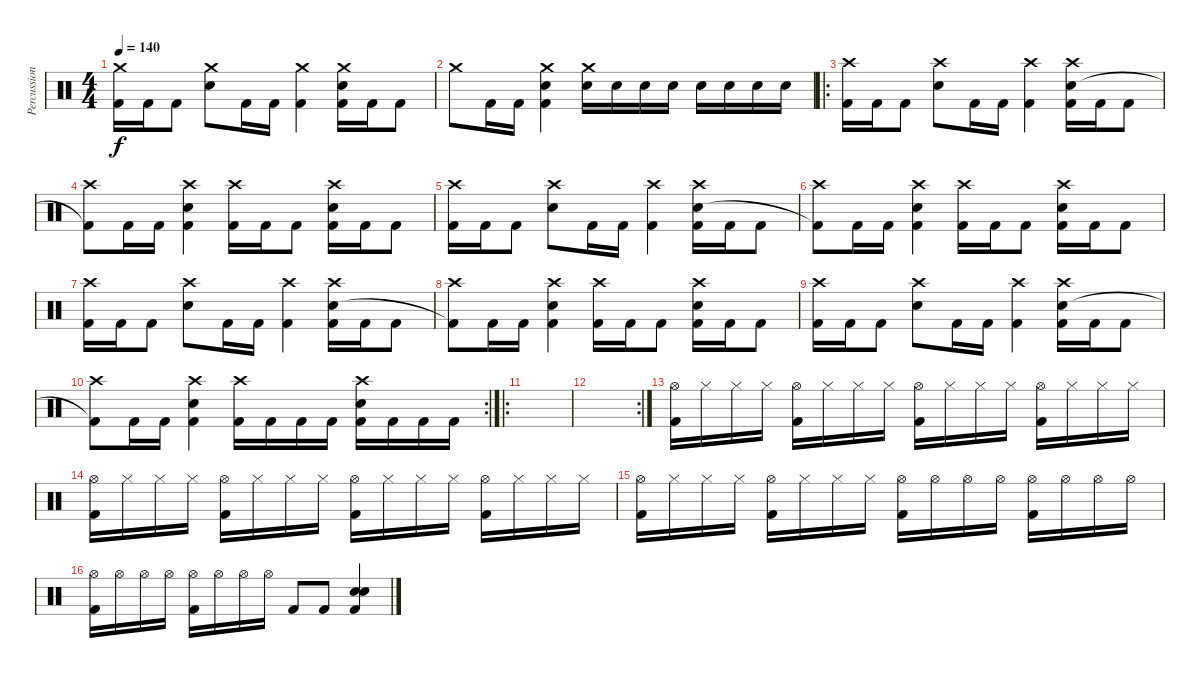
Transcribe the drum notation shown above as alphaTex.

\track ("Percussion" "Percussion") {instrument percussion}
\staff {score}
\articulation defaults
\ts (4 4)
\tempo 140
\clef neutral
\ks c
("Crash medium (hit)" "Kick (hit) 2").16{dy f} "Kick (hit) 2".16 "Kick (hit) 2".8 ("Crash medium (hit)" "Electric Snare (hit)").8 "Kick (hit) 2".16 "Kick (hit) 2".16 ("Crash medium (hit)" "Kick (hit) 2").4 ("Crash medium (hit)" "Electric Snare (hit)" "Kick (hit) 2").16 "Kick (hit) 2".16 "Kick (hit) 2".8 |
"Crash medium (hit)".8 "Kick (hit) 2".16 "Kick (hit) 2".16 ("Crash medium (hit)" "Electric Snare (hit)" "Kick (hit) 2").4 ("Crash medium (hit)" "Electric Snare (hit)").16 "Electric Snare (hit)".16 "Electric Snare (hit)".16 "Electric Snare (hit)".16 "Electric Snare (hit)".16 "Electric Snare (hit)".16 "Electric Snare (hit)".16 "Electric Snare (hit)".16 |
\ro
("Crash high (hit)" "Kick (hit) 2").16 "Kick (hit) 2".16 "Kick (hit) 2".8 ("Crash high (hit)" "Electric Snare (hit)").8 "Kick (hit) 2".16 "Kick (hit) 2".16 ("Crash high (hit)" "Kick (hit) 2").4 ("Crash high (hit)" "Electric Snare (hit)" "Kick (hit) 2").16 "Kick (hit) 2".16 "Kick (hit) 2".8 |
("Crash high (hit)" "Kick (hit) 2"{t}).8 "Kick (hit) 2".16 "Kick (hit) 2".16 ("Crash high (hit)" "Electric Snare (hit)" "Kick (hit) 2").4 ("Crash high (hit)" "Kick (hit) 2").16 "Kick (hit) 2".16 "Kick (hit) 2".8 ("Crash high (hit)" "Electric Snare (hit)" "Kick (hit) 2").16 "Kick (hit) 2".16 "Kick (hit) 2".8 |
("Crash high (hit)" "Kick (hit) 2").16 "Kick (hit) 2".16 "Kick (hit) 2".8 ("Crash high (hit)" "Electric Snare (hit)").8 "Kick (hit) 2".16 "Kick (hit) 2".16 ("Crash high (hit)" "Kick (hit) 2").4 ("Crash high (hit)" "Electric Snare (hit)" "Kick (hit) 2").16 "Kick (hit) 2".16 "Kick (hit) 2".8 |
("Crash high (hit)" "Kick (hit) 2"{t}).8 "Kick (hit) 2".16 "Kick (hit) 2".16 ("Crash high (hit)" "Electric Snare (hit)" "Kick (hit) 2").4 ("Crash high (hit)" "Kick (hit) 2").16 "Kick (hit) 2".16 "Kick (hit) 2".8 ("Crash high (hit)" "Electric Snare (hit)" "Kick (hit) 2").16 "Kick (hit) 2".16 "Kick (hit) 2".8 |
("Crash high (hit)" "Kick (hit) 2").16 "Kick (hit) 2".16 "Kick (hit) 2".8 ("Crash high (hit)" "Electric Snare (hit)").8 "Kick (hit) 2".16 "Kick (hit) 2".16 ("Crash high (hit)" "Kick (hit) 2").4 ("Crash high (hit)" "Electric Snare (hit)" "Kick (hit) 2").16 "Kick (hit) 2".16 "Kick (hit) 2".8 |
("Crash high (hit)" "Kick (hit) 2"{t}).8 "Kick (hit) 2".16 "Kick (hit) 2".16 ("Crash high (hit)" "Electric Snare (hit)" "Kick (hit) 2").4 ("Crash high (hit)" "Kick (hit) 2").16 "Kick (hit) 2".16 "Kick (hit) 2".8 ("Crash high (hit)" "Electric Snare (hit)" "Kick (hit) 2").16 "Kick (hit) 2".16 "Kick (hit) 2".8 |
("Crash high (hit)" "Kick (hit) 2").16 "Kick (hit) 2".16 "Kick (hit) 2".8 ("Crash high (hit)" "Electric Snare (hit)").8 "Kick (hit) 2".16 "Kick (hit) 2".16 ("Crash high (hit)" "Kick (hit) 2").4 ("Crash high (hit)" "Electric Snare (hit)" "Kick (hit) 2").16 "Kick (hit) 2".16 "Kick (hit) 2".8 |
\rc 2
("Crash high (hit)" "Kick (hit) 2"{t}).8 "Kick (hit) 2".16 "Kick (hit) 2".16 ("Crash high (hit)" "Electric Snare (hit)" "Kick (hit) 2").4 ("Crash high (hit)" "Kick (hit) 2").16 "Kick (hit) 2".16 "Kick (hit) 2".16 "Kick (hit) 2".16 ("Crash high (hit)" "Electric Snare (hit)" "Kick (hit) 2").16 "Kick (hit) 2".16 "Kick (hit) 2".16 "Kick (hit) 2".16 |
\ro
|
\rc 2
|
("Hi-Hat (open)" "Kick (hit) 2").16 "Hi-Hat (closed)".16 "Hi-Hat (closed)".16 "Hi-Hat (closed)".16 ("Hi-Hat (open)" "Kick (hit) 2").16 "Hi-Hat (closed)".16 "Hi-Hat (closed)".16 "Hi-Hat (closed)".16 ("Hi-Hat (open)" "Kick (hit) 2").16 "Hi-Hat (closed)".16 "Hi-Hat (closed)".16 "Hi-Hat (closed)".16 ("Hi-Hat (open)" "Kick (hit) 2").16 "Hi-Hat (closed)".16 "Hi-Hat (closed)".16 "Hi-Hat (closed)".16 |
("Hi-Hat (open)" "Kick (hit) 2").16 "Hi-Hat (closed)".16 "Hi-Hat (closed)".16 "Hi-Hat (closed)".16 ("Hi-Hat (open)" "Kick (hit) 2").16 "Hi-Hat (closed)".16 "Hi-Hat (closed)".16 "Hi-Hat (closed)".16 ("Hi-Hat (open)" "Kick (hit) 2").16 "Hi-Hat (closed)".16 "Hi-Hat (closed)".16 "Hi-Hat (closed)".16 ("Hi-Hat (open)" "Kick (hit) 2").16 "Hi-Hat (closed)".16 "Hi-Hat (closed)".16 "Hi-Hat (closed)".16 |
("Hi-Hat (open)" "Kick (hit) 2").16 "Hi-Hat (closed)".16 "Hi-Hat (closed)".16 "Hi-Hat (closed)".16 ("Hi-Hat (open)" "Kick (hit) 2").16 "Hi-Hat (closed)".16 "Hi-Hat (closed)".16 "Hi-Hat (closed)".16 ("Hi-Hat (open)" "Kick (hit) 2").16 "Hi-Hat (open)".16 "Hi-Hat (open)".16 "Hi-Hat (open)".16 ("Hi-Hat (open)" "Kick (hit) 2").16 "Hi-Hat (open)".16 "Hi-Hat (open)".16 "Hi-Hat (open)".16 |
("Hi-Hat (open)" "Kick (hit) 2").16 "Hi-Hat (open)".16 "Hi-Hat (open)".16 "Hi-Hat (open)".16 ("Hi-Hat (open)" "Kick (hit) 2").16 "Hi-Hat (open)".16 "Hi-Hat (open)".16 "Hi-Hat (open)".16 "Kick (hit) 2".8 "Kick (hit) 2".8 ("Electric Snare (hit)" "Electric Snare (hit)" "Kick (hit) 2").4
